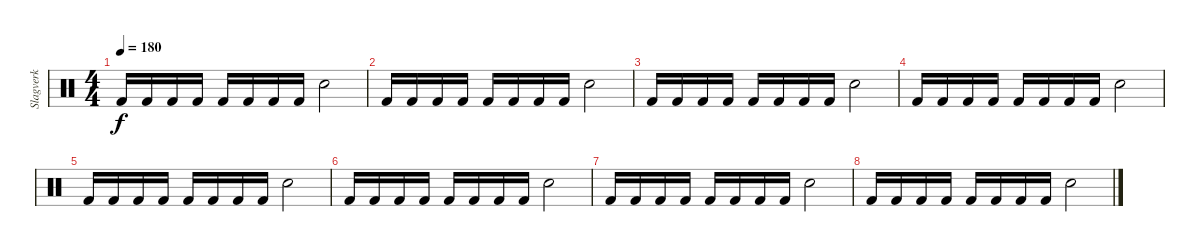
\track ("Slagverk" "Slagverk") {instrument percussion}
\staff {score}
\articulation defaults
\ts (4 4)
\tempo 180
\clef neutral
\ks c "Kick (hit) 2".16{dy f} "Kick (hit) 2".16 "Kick (hit) 2".16 "Kick (hit) 2".16 "Kick (hit) 2".16 "Kick (hit) 2".16 "Kick (hit) 2".16 "Kick (hit) 2".16 "Electric Snare (hit)".2
|
"Kick (hit) 2".16 "Kick (hit) 2".16 "Kick (hit) 2".16 "Kick (hit) 2".16 "Kick (hit) 2".16 "Kick (hit) 2".16 "Kick (hit) 2".16 "Kick (hit) 2".16 "Electric Snare (hit)".2 |
"Kick (hit) 2".16 "Kick (hit) 2".16 "Kick (hit) 2".16 "Kick (hit) 2".16 "Kick (hit) 2".16 "Kick (hit) 2".16 "Kick (hit) 2".16 "Kick (hit) 2".16 "Electric Snare (hit)".2 |
"Kick (hit) 2".16 "Kick (hit) 2".16 "Kick (hit) 2".16 "Kick (hit) 2".16 "Kick (hit) 2".16 "Kick (hit) 2".16 "Kick (hit) 2".16 "Kick (hit) 2".16 "Electric Snare (hit)".2 |
"Kick (hit) 2".16 "Kick (hit) 2".16 "Kick (hit) 2".16 "Kick (hit) 2".16 "Kick (hit) 2".16 "Kick (hit) 2".16 "Kick (hit) 2".16 "Kick (hit) 2".16 "Electric Snare (hit)".2 |
"Kick (hit) 2".16 "Kick (hit) 2".16 "Kick (hit) 2".16 "Kick (hit) 2".16 "Kick (hit) 2".16 "Kick (hit) 2".16 "Kick (hit) 2".16 "Kick (hit) 2".16 "Electric Snare (hit)".2 |
"Kick (hit) 2".16 "Kick (hit) 2".16 "Kick (hit) 2".16 "Kick (hit) 2".16 "Kick (hit) 2".16 "Kick (hit) 2".16 "Kick (hit) 2".16 "Kick (hit) 2".16 "Electric Snare (hit)".2 |
"Kick (hit) 2".16 "Kick (hit) 2".16 "Kick (hit) 2".16 "Kick (hit) 2".16 "Kick (hit) 2".16 "Kick (hit) 2".16 "Kick (hit) 2".16 "Kick (hit) 2".16 "Electric Snare (hit)".2
